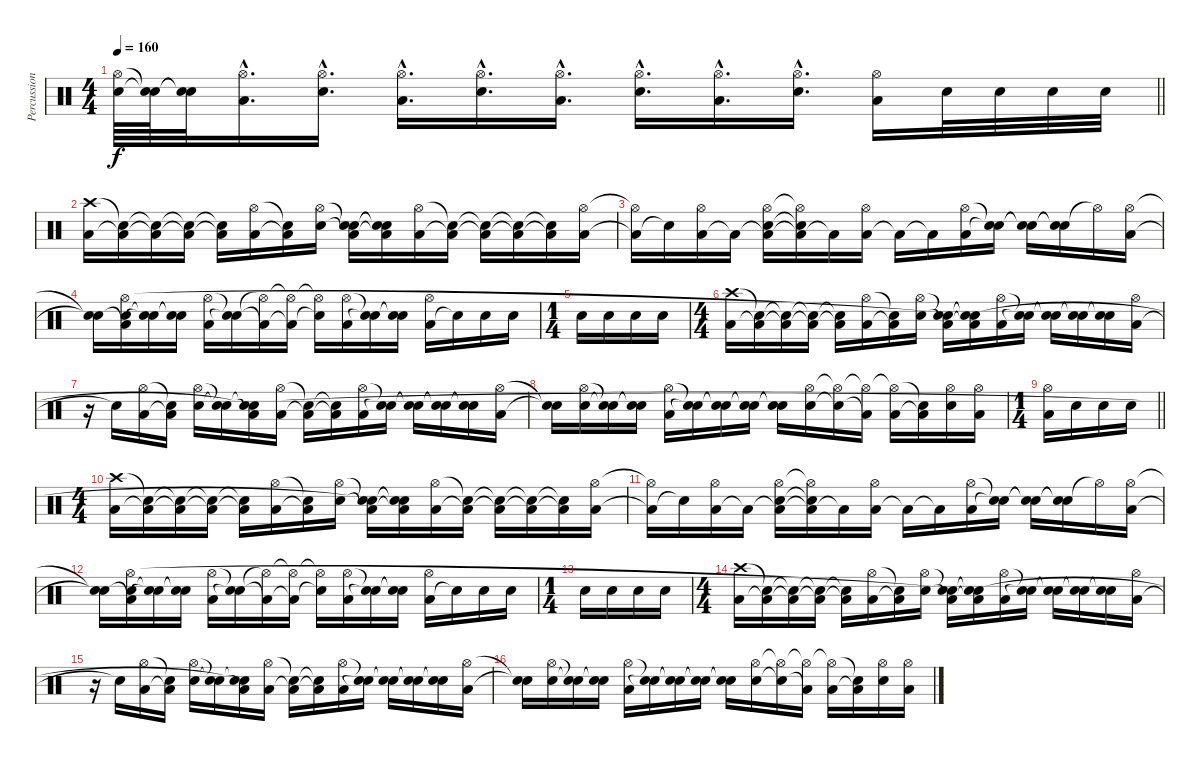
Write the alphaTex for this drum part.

\track ("Percussion 1" "Percussion") {instrument percussion}
\staff {score}
\articulation defaults
\ts (4 4)
\tempo 160
\clef neutral
\barLineRight lightlight
\ks c
("Snare (hit) 2"{t} "Hi-Hat (open)"{t}).64{dy f} ("Snare (hit)"{t} "Snare (hit)"{t}).64 ("Snare (hit)"{t} "Snare (hit)"{t}).32 ("Low Floor Tom (hit)"{hac} "Hi-Hat (open)"{hac}).16{d} ("Snare (hit) 2"{hac} "Hi-Hat (open)"{hac}).16{d} ("Low Floor Tom (hit)"{hac} "Hi-Hat (open)"{hac}).16{d} ("Snare (hit) 2"{hac} "Hi-Hat (open)"{hac}).16{d} ("Low Floor Tom (hit)"{hac} "Hi-Hat (open)"{hac}).16{d} ("Snare (hit) 2"{hac} "Hi-Hat (open)"{hac}).16{d} ("Low Floor Tom (hit)"{hac} "Hi-Hat (open)"{hac}).16{d} ("Snare (hit) 2"{hac} "Hi-Hat (open)"{hac}).16{d} ("Low Floor Tom (hit)" "Hi-Hat (open)").16 "Snare (hit) 2".32 "Snare (hit) 2".32 "Snare (hit) 2".32 "Snare (hit) 2".32 |
\section ("" " ")
("Low Floor Tom (hit)" "Crash high (hit)").16 ("Low Floor Tom (hit)"{t} "Snare (hit)"{t}).16 ("Low Floor Tom (hit)"{t} "Snare (hit)"{t}).16 ("Low Floor Tom (hit)"{t} "Snare (hit)"{t}).16 ("Low Floor Tom (hit)"{t} "Snare (hit)"{t}).16 ("Low Floor Tom (hit)" "Hi-Hat (open)").16 ("Low Floor Tom (hit)"{t} "Snare (hit)"{t}).16 ("Snare (hit) 2" "Hi-Hat (open)").16 ("Low Floor Tom (hit)"{t} "Snare (hit)"{t} "Snare (hit)").16 ("Low Floor Tom (hit)"{t} "Snare (hit)"{t} "Snare (hit)"{t}).16 ("Low Floor Tom (hit)" "Hi-Hat (open)").16 ("Low Floor Tom (hit)"{t} "Snare (hit)"{t}).16 ("Low Floor Tom (hit)"{t} "Snare (hit)"{t}).16 ("Low Floor Tom (hit)"{t} "Snare (hit)"{t}).16 ("Low Floor Tom (hit)"{t} "Snare (hit)"{t}).16 ("Low Floor Tom (hit)" "Hi-Hat (open)").16 |
("Low Floor Tom (hit)"{t} "Hi-Hat (open)"{t}).16 "Snare (hit)"{t}.16 ("Low Floor Tom (hit)" "Hi-Hat (open)").16 "Low Floor Tom (hit)"{t}.16 ("Low Floor Tom (hit)"{t} "Snare (hit) 2" "Hi-Hat (open)").16 ("Low Floor Tom (hit)"{t} "Snare (hit)"{t} "Hi-Hat (open)"{t}).16 "Low Floor Tom (hit)"{t}.16 ("Low Floor Tom (hit)" "Hi-Hat (open)").16 "Low Floor Tom (hit)"{t}.16 "Low Floor Tom (hit)"{t}.16 ("Low Floor Tom (hit)" "Hi-Hat (open)").16 ("Snare (hit)"{t} "Snare (hit)"{t}).16 ("Snare (hit)"{t} "Snare (hit)"{t}).16 ("Snare (hit)"{t} "Snare (hit)"{t}).16 "Hi-Hat (open)"{t}.16 ("Low Floor Tom (hit)" "Hi-Hat (open)").16 |
("Snare (hit)"{t} "Snare (hit)"{t}).16 ("Low Floor Tom (hit)"{t} "Snare (hit) 2" "Hi-Hat (open)").16 ("Snare (hit)"{t} "Snare (hit)"{t}).16 ("Snare (hit)"{t} "Snare (hit)"{t}).16 ("Low Floor Tom (hit)" "Hi-Hat (open)").16 ("Snare (hit)"{t} "Snare (hit)"{t}).16 ("Low Floor Tom (hit)"{t} "Hi-Hat (open)"{t}).16 ("Low Floor Tom (hit)"{t} "Hi-Hat (open)"{t}).16 ("Snare (hit)"{t} "Hi-Hat (open)"{t}).16 ("Low Floor Tom (hit)" "Hi-Hat (open)").16 ("Snare (hit)"{t} "Snare (hit)"{t}).16 ("Snare (hit)"{t} "Snare (hit)"{t}).16 ("Low Floor Tom (hit)" "Hi-Hat (open)").16 "Snare (hit)"{t}.16 "Snare (hit) 2".16 "Snare (hit) 2".16 |
\ts (1 4)
"Snare (hit) 2".16 "Snare (hit) 2".16 "Snare (hit) 2".16 "Snare (hit) 2".16 |
\ts (4 4)
("Low Floor Tom (hit)" "Crash high (hit)").16 ("Low Floor Tom (hit)"{t} "Snare (hit)"{t}).16 ("Low Floor Tom (hit)"{t} "Snare (hit)"{t}).16 ("Low Floor Tom (hit)"{t} "Snare (hit)"{t}).16 ("Low Floor Tom (hit)"{t} "Snare (hit)"{t}).16 ("Low Floor Tom (hit)" "Hi-Hat (open)").16 ("Low Floor Tom (hit)"{t} "Snare (hit)"{t}).16 ("Snare (hit) 2" "Hi-Hat (open)").16 ("Low Floor Tom (hit)"{t} "Snare (hit)"{t} "Snare (hit)"{t}).16 ("Low Floor Tom (hit)"{t} "Snare (hit)"{t} "Snare (hit)"{t}).16 ("Low Floor Tom (hit)" "Hi-Hat (open)").16 ("Snare (hit)"{t} "Snare (hit)"{t}).16 ("Snare (hit)"{t} "Snare (hit)"{t}).16 ("Snare (hit)"{t} "Snare (hit)"{t}).16 ("Snare (hit)"{t} "Snare (hit)"{t}).16 ("Low Floor Tom (hit)" "Hi-Hat (open)").16 |
r.16 "Snare (hit)"{t}.16 ("Low Floor Tom (hit)" "Hi-Hat (open)").16 ("Low Floor Tom (hit)"{t} "Snare (hit)"{t}).16 ("Snare (hit) 2" "Hi-Hat (open)").16 ("Snare (hit)"{t} "Snare (hit)"{t}).16 ("Low Floor Tom (hit)"{t} "Snare (hit)"{t} "Snare (hit)"{t}).16 ("Low Floor Tom (hit)" "Hi-Hat (open)").16 ("Low Floor Tom (hit)"{t} "Snare (hit)"{t}).16 ("Low Floor Tom (hit)"{t} "Snare (hit)"{t}).16 ("Low Floor Tom (hit)" "Hi-Hat (open)").16 ("Snare (hit)"{t} "Snare (hit)"{t}).16 ("Snare (hit)"{t} "Snare (hit)"{t}).16 ("Snare (hit)"{t} "Snare (hit)"{t}).16 ("Snare (hit)"{t} "Snare (hit)"{t}).16 ("Low Floor Tom (hit)" "Hi-Hat (open)").16 |
("Snare (hit)"{t} "Snare (hit)"{t}).16 ("Snare (hit) 2" "Hi-Hat (open)").16 ("Snare (hit)"{t} "Snare (hit)"{t}).16 ("Snare (hit)"{t} "Snare (hit)"{t}).16 ("Low Floor Tom (hit)" "Hi-Hat (open)").16 ("Snare (hit)"{t} "Snare (hit)"{t}).16 ("Snare (hit)"{t} "Snare (hit)"{t}).16 ("Snare (hit)"{t} "Snare (hit)"{t}).16 ("Snare (hit)"{t} "Snare (hit)"{t}).16 ("Snare (hit) 2" "Hi-Hat (open)").16 ("Snare (hit)"{t} "Hi-Hat (open)"{t}).16 ("Low Floor Tom (hit)"{t} "Hi-Hat (open)"{t}).16 ("Low Floor Tom (hit)" "Hi-Hat (open)"{t}).16 ("Low Floor Tom (hit)"{t} "Snare (hit)"{t}).16 ("Snare (hit) 2" "Hi-Hat (open)").16 ("Low Floor Tom (hit)" "Hi-Hat (open)").16 |
\ts (1 4)
\barLineRight lightlight
("Low Floor Tom (hit)" "Hi-Hat (open)").16 "Snare (hit) 2".16 "Snare (hit) 2".16 "Snare (hit) 2".16 |
\ts (4 4)
("Low Floor Tom (hit)" "Crash high (hit)").16 ("Low Floor Tom (hit)"{t} "Snare (hit)"{t}).16 ("Low Floor Tom (hit)"{t} "Snare (hit)"{t}).16 ("Low Floor Tom (hit)"{t} "Snare (hit)"{t}).16 ("Low Floor Tom (hit)"{t} "Snare (hit)"{t}).16 ("Low Floor Tom (hit)" "Hi-Hat (open)").16 ("Low Floor Tom (hit)"{t} "Snare (hit)"{t}).16 ("Snare (hit) 2" "Hi-Hat (open)").16 ("Low Floor Tom (hit)"{t} "Snare (hit)"{t} "Snare (hit)"{t}).16 ("Low Floor Tom (hit)"{t} "Snare (hit)"{t} "Snare (hit)"{t}).16 ("Low Floor Tom (hit)" "Hi-Hat (open)").16 ("Low Floor Tom (hit)"{t} "Snare (hit)"{t}).16 ("Low Floor Tom (hit)"{t} "Snare (hit)"{t}).16 ("Low Floor Tom (hit)"{t} "Snare (hit)"{t}).16 ("Low Floor Tom (hit)"{t} "Snare (hit)"{t}).16 ("Low Floor Tom (hit)" "Hi-Hat (open)").16 |
("Low Floor Tom (hit)"{t} "Hi-Hat (open)"{t}).16 "Snare (hit)"{t}.16 ("Low Floor Tom (hit)" "Hi-Hat (open)").16 "Low Floor Tom (hit)"{t}.16 ("Low Floor Tom (hit)"{t} "Snare (hit) 2" "Hi-Hat (open)").16 ("Low Floor Tom (hit)"{t} "Snare (hit)"{t} "Hi-Hat (open)"{t}).16 "Low Floor Tom (hit)"{t}.16 ("Low Floor Tom (hit)" "Hi-Hat (open)").16 "Low Floor Tom (hit)"{t}.16 "Low Floor Tom (hit)"{t}.16 ("Low Floor Tom (hit)" "Hi-Hat (open)").16 ("Snare (hit)"{t} "Snare (hit)"{t}).16 ("Snare (hit)"{t} "Snare (hit)"{t}).16 ("Snare (hit)"{t} "Snare (hit)"{t}).16 "Hi-Hat (open)"{t}.16 ("Low Floor Tom (hit)" "Hi-Hat (open)").16 |
("Snare (hit)"{t} "Snare (hit)"{t}).16 ("Low Floor Tom (hit)"{t} "Snare (hit) 2" "Hi-Hat (open)").16 ("Snare (hit)"{t} "Snare (hit)"{t}).16 ("Snare (hit)"{t} "Snare (hit)"{t}).16 ("Low Floor Tom (hit)" "Hi-Hat (open)").16 ("Snare (hit)"{t} "Snare (hit)"{t}).16 ("Low Floor Tom (hit)"{t} "Hi-Hat (open)"{t}).16 ("Low Floor Tom (hit)"{t} "Hi-Hat (open)"{t}).16 ("Snare (hit)"{t} "Hi-Hat (open)"{t}).16 ("Low Floor Tom (hit)" "Hi-Hat (open)").16 ("Snare (hit)"{t} "Snare (hit)"{t}).16 ("Snare (hit)"{t} "Snare (hit)"{t}).16 ("Low Floor Tom (hit)" "Hi-Hat (open)").16 "Snare (hit)"{t}.16 "Snare (hit) 2".16 "Snare (hit) 2".16 |
\ts (1 4)
"Snare (hit) 2".16 "Snare (hit) 2".16 "Snare (hit) 2".16 "Snare (hit) 2".16 |
\ts (4 4)
("Low Floor Tom (hit)" "Crash high (hit)").16 ("Low Floor Tom (hit)"{t} "Snare (hit)"{t}).16 ("Low Floor Tom (hit)"{t} "Snare (hit)"{t}).16 ("Low Floor Tom (hit)"{t} "Snare (hit)"{t}).16 ("Low Floor Tom (hit)"{t} "Snare (hit)"{t}).16 ("Low Floor Tom (hit)" "Hi-Hat (open)").16 ("Low Floor Tom (hit)"{t} "Snare (hit)"{t}).16 ("Snare (hit) 2" "Hi-Hat (open)").16 ("Low Floor Tom (hit)"{t} "Snare (hit)"{t} "Snare (hit)"{t}).16 ("Low Floor Tom (hit)"{t} "Snare (hit)"{t} "Snare (hit)"{t}).16 ("Low Floor Tom (hit)" "Hi-Hat (open)").16 ("Snare (hit)"{t} "Snare (hit)"{t}).16 ("Snare (hit)"{t} "Snare (hit)"{t}).16 ("Snare (hit)"{t} "Snare (hit)"{t}).16 ("Snare (hit)"{t} "Snare (hit)"{t}).16 ("Low Floor Tom (hit)" "Hi-Hat (open)").16 |
r.16 "Snare (hit)"{t}.16 ("Low Floor Tom (hit)" "Hi-Hat (open)").16 ("Low Floor Tom (hit)"{t} "Snare (hit)"{t}).16 ("Snare (hit) 2" "Hi-Hat (open)").16 ("Snare (hit)"{t} "Snare (hit)"{t}).16 ("Low Floor Tom (hit)"{t} "Snare (hit)"{t} "Snare (hit)"{t}).16 ("Low Floor Tom (hit)" "Hi-Hat (open)").16 ("Low Floor Tom (hit)"{t} "Snare (hit)"{t}).16 ("Low Floor Tom (hit)"{t} "Snare (hit)"{t}).16 ("Low Floor Tom (hit)" "Hi-Hat (open)").16 ("Snare (hit)"{t} "Snare (hit)"{t}).16 ("Snare (hit)"{t} "Snare (hit)"{t}).16 ("Snare (hit)"{t} "Snare (hit)"{t}).16 ("Snare (hit)"{t} "Snare (hit)"{t}).16 ("Low Floor Tom (hit)" "Hi-Hat (open)").16 |
("Snare (hit)"{t} "Snare (hit)"{t}).16 ("Snare (hit) 2" "Hi-Hat (open)").16 ("Snare (hit)"{t} "Snare (hit)"{t}).16 ("Snare (hit)"{t} "Snare (hit)"{t}).16 ("Low Floor Tom (hit)" "Hi-Hat (open)").16 ("Snare (hit)"{t} "Snare (hit)"{t}).16 ("Snare (hit)"{t} "Snare (hit)"{t}).16 ("Snare (hit)"{t} "Snare (hit)"{t}).16 ("Snare (hit)"{t} "Snare (hit)"{t}).16 ("Snare (hit) 2" "Hi-Hat (open)").16 ("Snare (hit)"{t} "Hi-Hat (open)"{t}).16 ("Low Floor Tom (hit)"{t} "Hi-Hat (open)"{t}).16 ("Low Floor Tom (hit)" "Hi-Hat (open)"{t}).16 ("Low Floor Tom (hit)"{t} "Snare (hit)"{t}).16 ("Snare (hit) 2" "Hi-Hat (open)").16 ("Low Floor Tom (hit)" "Hi-Hat (open)").16
